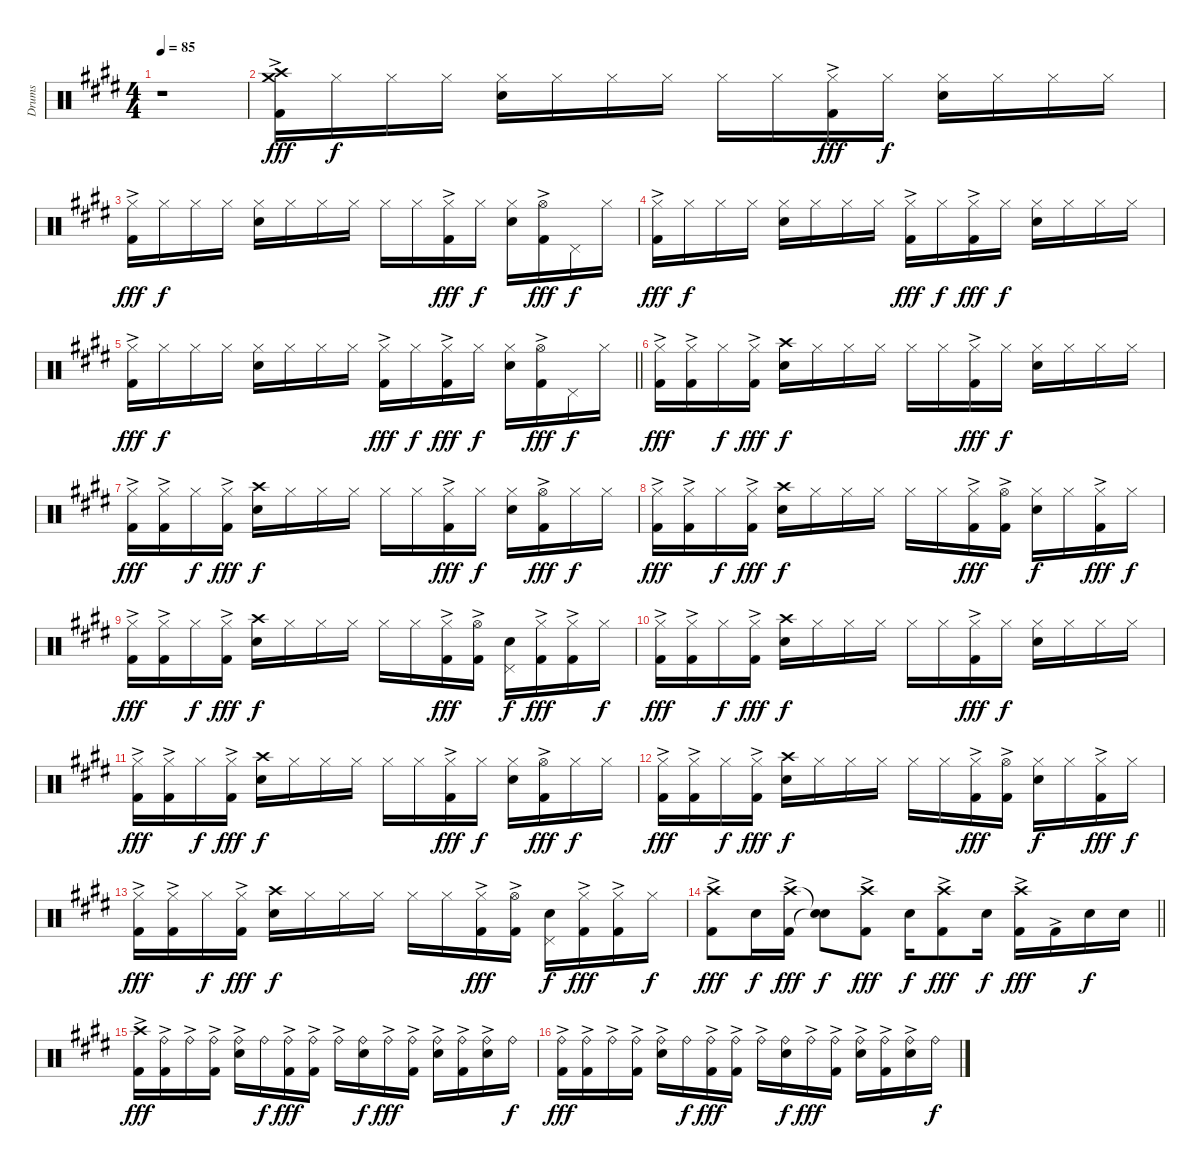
\track ("Drums" "Drums") {instrument percussion}
\staff {score}
\articulation defaults
\ts (4 4)
\tempo 85
\clef neutral
\ks e
r.1{dy fff} |
("Crash high (hit)" "Crash medium (hit)" "Kick (hit) 2"{ac}).16 "Hi-Hat (closed)".16{dy f} "Hi-Hat (closed)".16 "Hi-Hat (closed)".16 ("Hi-Hat (closed)" "Snare (hit) 2").16 "Hi-Hat (closed)".16 "Hi-Hat (closed)".16 "Hi-Hat (closed)".16 "Hi-Hat (closed)".16 "Hi-Hat (closed)".16 ("Hi-Hat (closed)" "Kick (hit) 2"{ac}).16{dy fff} "Hi-Hat (closed)".16{dy f} ("Hi-Hat (closed)" "Snare (hit) 2").16 "Hi-Hat (closed)".16 "Hi-Hat (closed)".16 "Hi-Hat (closed)".16 |
("Hi-Hat (closed)" "Kick (hit) 2"{ac}).16{dy fff} "Hi-Hat (closed)".16{dy f} "Hi-Hat (closed)".16 "Hi-Hat (closed)".16 ("Hi-Hat (closed)" "Snare (hit) 2").16 "Hi-Hat (closed)".16 "Hi-Hat (closed)".16 "Hi-Hat (closed)".16 "Hi-Hat (closed)".16 "Hi-Hat (closed)".16 ("Hi-Hat (closed)" "Kick (hit) 2"{ac}).16{dy fff} "Hi-Hat (closed)".16{dy f} ("Hi-Hat (closed)" "Snare (hit) 2").16 ("Hi-Hat (open)" "Kick (hit) 2"{ac}).16{dy fff} "Pedal Hi-Hat (hit)".16{dy f} "Hi-Hat (closed)".16 |
("Hi-Hat (closed)" "Kick (hit) 2"{ac}).16{dy fff} "Hi-Hat (closed)".16{dy f} "Hi-Hat (closed)".16 "Hi-Hat (closed)".16 ("Hi-Hat (closed)" "Snare (hit) 2").16 "Hi-Hat (closed)".16 "Hi-Hat (closed)".16 "Hi-Hat (closed)".16 ("Hi-Hat (closed)" "Kick (hit) 2"{ac}).16{dy fff} "Hi-Hat (closed)".16{dy f} ("Hi-Hat (closed)" "Kick (hit) 2"{ac}).16{dy fff} "Hi-Hat (closed)".16{dy f} ("Hi-Hat (closed)" "Snare (hit) 2").16 "Hi-Hat (closed)".16 "Hi-Hat (closed)".16 "Hi-Hat (closed)".16 |
\barLineRight lightlight
("Hi-Hat (closed)" "Kick (hit) 2"{ac}).16{dy fff} "Hi-Hat (closed)".16{dy f} "Hi-Hat (closed)".16 "Hi-Hat (closed)".16 ("Hi-Hat (closed)" "Snare (hit) 2").16 "Hi-Hat (closed)".16 "Hi-Hat (closed)".16 "Hi-Hat (closed)".16 ("Hi-Hat (closed)" "Kick (hit) 2"{ac}).16{dy fff} "Hi-Hat (closed)".16{dy f} ("Hi-Hat (closed)" "Kick (hit) 2"{ac}).16{dy fff} "Hi-Hat (closed)".16{dy f} ("Hi-Hat (closed)" "Snare (hit) 2").16 ("Hi-Hat (open)" "Kick (hit) 2"{ac}).16{dy fff} "Pedal Hi-Hat (hit)".16{dy f} "Hi-Hat (closed)".16 |
("Hi-Hat (closed)" "Kick (hit) 2"{ac}).16{dy fff} ("Hi-Hat (closed)" "Kick (hit) 2"{ac}).16 "Hi-Hat (closed)".16{dy f} ("Hi-Hat (closed)" "Kick (hit) 2"{ac}).16{dy fff} ("Crash high (hit)" "Snare (hit) 2").16{dy f} "Hi-Hat (closed)".16 "Hi-Hat (closed)".16 "Hi-Hat (closed)".16 "Hi-Hat (closed)".16 "Hi-Hat (closed)".16 ("Hi-Hat (closed)" "Kick (hit) 2"{ac}).16{dy fff} "Hi-Hat (closed)".16{dy f} ("Hi-Hat (closed)" "Snare (hit) 2").16 "Hi-Hat (closed)".16 "Hi-Hat (closed)".16 "Hi-Hat (closed)".16 |
("Hi-Hat (closed)" "Kick (hit) 2"{ac}).16{dy fff} ("Hi-Hat (closed)" "Kick (hit) 2"{ac}).16 "Hi-Hat (closed)".16{dy f} ("Hi-Hat (closed)" "Kick (hit) 2"{ac}).16{dy fff} ("Crash high (hit)" "Snare (hit) 2").16{dy f} "Hi-Hat (closed)".16 "Hi-Hat (closed)".16 "Hi-Hat (closed)".16 "Hi-Hat (closed)".16 "Hi-Hat (closed)".16 ("Hi-Hat (closed)" "Kick (hit) 2"{ac}).16{dy fff} "Hi-Hat (closed)".16{dy f} ("Hi-Hat (closed)" "Snare (hit) 2").16 ("Hi-Hat (open)" "Kick (hit) 2"{ac}).16{dy fff} "Hi-Hat (closed)".16{dy f} "Hi-Hat (closed)".16 |
("Hi-Hat (closed)" "Kick (hit) 2"{ac}).16{dy fff} ("Hi-Hat (closed)" "Kick (hit) 2"{ac}).16 "Hi-Hat (closed)".16{dy f} ("Hi-Hat (closed)" "Kick (hit) 2"{ac}).16{dy fff} ("Crash high (hit)" "Snare (hit) 2").16{dy f} "Hi-Hat (closed)".16 "Hi-Hat (closed)".16 "Hi-Hat (closed)".16 "Hi-Hat (closed)".16 "Hi-Hat (closed)".16 ("Hi-Hat (closed)" "Kick (hit) 2"{ac}).16{dy fff} ("Hi-Hat (open)" "Kick (hit) 2"{ac}).16 ("Hi-Hat (closed)" "Snare (hit) 2").16{dy f} "Hi-Hat (closed)".16 ("Hi-Hat (closed)" "Kick (hit) 2"{ac}).16{dy fff} "Hi-Hat (closed)".16{dy f} |
("Hi-Hat (closed)" "Kick (hit) 2"{ac}).16{dy fff} ("Hi-Hat (closed)" "Kick (hit) 2"{ac}).16 "Hi-Hat (closed)".16{dy f} ("Hi-Hat (closed)" "Kick (hit) 2"{ac}).16{dy fff} ("Crash high (hit)" "Snare (hit) 2").16{dy f} "Hi-Hat (closed)".16 "Hi-Hat (closed)".16 "Hi-Hat (closed)".16 "Hi-Hat (closed)".16 "Hi-Hat (closed)".16 ("Hi-Hat (closed)" "Kick (hit) 2"{ac}).16{dy fff} ("Hi-Hat (open)" "Kick (hit) 2"{ac}).16 ("Pedal Hi-Hat (hit)" "Snare (hit) 2").16{dy f} ("Hi-Hat (closed)" "Kick (hit) 2"{ac}).16{dy fff} ("Hi-Hat (closed)" "Kick (hit) 2"{ac}).16 "Hi-Hat (closed)".16{dy f} |
("Hi-Hat (closed)" "Kick (hit) 2"{ac}).16{dy fff} ("Hi-Hat (closed)" "Kick (hit) 2"{ac}).16 "Hi-Hat (closed)".16{dy f} ("Hi-Hat (closed)" "Kick (hit) 2"{ac}).16{dy fff} ("Crash high (hit)" "Snare (hit) 2").16{dy f} "Hi-Hat (closed)".16 "Hi-Hat (closed)".16 "Hi-Hat (closed)".16 "Hi-Hat (closed)".16 "Hi-Hat (closed)".16 ("Hi-Hat (closed)" "Kick (hit) 2"{ac}).16{dy fff} "Hi-Hat (closed)".16{dy f} ("Hi-Hat (closed)" "Snare (hit) 2").16 "Hi-Hat (closed)".16 "Hi-Hat (closed)".16 "Hi-Hat (closed)".16 |
("Hi-Hat (closed)" "Kick (hit) 2"{ac}).16{dy fff} ("Hi-Hat (closed)" "Kick (hit) 2"{ac}).16 "Hi-Hat (closed)".16{dy f} ("Hi-Hat (closed)" "Kick (hit) 2"{ac}).16{dy fff} ("Crash high (hit)" "Snare (hit) 2").16{dy f} "Hi-Hat (closed)".16 "Hi-Hat (closed)".16 "Hi-Hat (closed)".16 "Hi-Hat (closed)".16 "Hi-Hat (closed)".16 ("Hi-Hat (closed)" "Kick (hit) 2"{ac}).16{dy fff} "Hi-Hat (closed)".16{dy f} ("Hi-Hat (closed)" "Snare (hit) 2").16 ("Hi-Hat (open)" "Kick (hit) 2"{ac}).16{dy fff} "Hi-Hat (closed)".16{dy f} "Hi-Hat (closed)".16 |
("Hi-Hat (closed)" "Kick (hit) 2"{ac}).16{dy fff} ("Hi-Hat (closed)" "Kick (hit) 2"{ac}).16 "Hi-Hat (closed)".16{dy f} ("Hi-Hat (closed)" "Kick (hit) 2"{ac}).16{dy fff} ("Crash high (hit)" "Snare (hit) 2").16{dy f} "Hi-Hat (closed)".16 "Hi-Hat (closed)".16 "Hi-Hat (closed)".16 "Hi-Hat (closed)".16 "Hi-Hat (closed)".16 ("Hi-Hat (closed)" "Kick (hit) 2"{ac}).16{dy fff} ("Hi-Hat (open)" "Kick (hit) 2"{ac}).16 ("Hi-Hat (closed)" "Snare (hit) 2").16{dy f} "Hi-Hat (closed)".16 ("Hi-Hat (closed)" "Kick (hit) 2"{ac}).16{dy fff} "Hi-Hat (closed)".16{dy f} |
("Hi-Hat (closed)" "Kick (hit) 2"{ac}).16{dy fff} ("Hi-Hat (closed)" "Kick (hit) 2"{ac}).16 "Hi-Hat (closed)".16{dy f} ("Hi-Hat (closed)" "Kick (hit) 2"{ac}).16{dy fff} ("Crash high (hit)" "Snare (hit) 2").16{dy f} "Hi-Hat (closed)".16 "Hi-Hat (closed)".16 "Hi-Hat (closed)".16 "Hi-Hat (closed)".16 "Hi-Hat (closed)".16 ("Hi-Hat (closed)" "Kick (hit) 2"{ac}).16{dy fff} ("Hi-Hat (open)" "Kick (hit) 2"{ac}).16 ("Pedal Hi-Hat (hit)" "Snare (hit) 2").16{dy f} ("Hi-Hat (closed)" "Kick (hit) 2"{ac}).16{dy fff} ("Hi-Hat (closed)" "Kick (hit) 2"{ac}).16 "Hi-Hat (closed)".16{dy f} |
\barLineRight lightlight
("Crash high (hit)" "Kick (hit) 2"{ac}).8{dy fff} "Snare (hit) 2".16{dy f} ("Crash high (hit)" "Kick (hit) 2"{ac}).16{dy fff} ("Snare (hit)"{t} "Snare (hit)"{t}).8{dy f} ("Crash high (hit)" "Kick (hit) 2"{ac}).8{dy fff} "Snare (hit) 2".16{dy f} ("Crash high (hit)" "Kick (hit) 2"{ac}).8{dy fff} "Snare (hit) 2".16{dy f} ("Crash high (hit)" "Kick (hit) 2"{ac}).16{dy fff} "Kick (hit) 2"{ac}.16 "Snare (hit) 2".16{dy f} "Snare (hit) 2".16 |
("Crash high (hit)" "Kick (hit) 2"{ac}).16{dy fff} ("Ride (bell)" "Kick (hit) 2"{ac}).16 "Ride (bell)"{ac}.16 ("Ride (bell)" "Kick (hit) 2"{ac}).16 ("Ride (bell)"{ac} "Snare (hit) 2").16 "Ride (bell)".16{dy f} ("Ride (bell)"{ac} "Kick (hit) 2"{ac}).16{dy fff} ("Ride (bell)" "Kick (hit) 2"{ac}).16 "Ride (bell)"{ac}.16 ("Ride (bell)" "Snare (hit) 2").16{dy f} "Ride (bell)"{ac}.16{dy fff} ("Ride (bell)" "Kick (hit) 2"{ac}).16 ("Ride (bell)"{ac} "Snare (hit) 2").16 ("Ride (bell)" "Kick (hit) 2"{ac}).16 ("Ride (bell)"{ac} "Snare (hit) 2").16 "Ride (bell)".16{dy f} |
("Ride (bell)"{ac} "Kick (hit) 2"{ac}).16{dy fff} ("Ride (bell)" "Kick (hit) 2"{ac}).16 "Ride (bell)"{ac}.16 ("Ride (bell)" "Kick (hit) 2"{ac}).16 ("Ride (bell)"{ac} "Snare (hit) 2").16 "Ride (bell)".16{dy f} ("Ride (bell)"{ac} "Kick (hit) 2"{ac}).16{dy fff} ("Ride (bell)" "Kick (hit) 2"{ac}).16 "Ride (bell)"{ac}.16 ("Ride (bell)" "Snare (hit) 2").16{dy f} "Ride (bell)"{ac}.16{dy fff} ("Ride (bell)" "Kick (hit) 2"{ac}).16 ("Ride (bell)"{ac} "Snare (hit) 2").16 ("Ride (bell)" "Kick (hit) 2"{ac}).16 ("Ride (bell)"{ac} "Snare (hit) 2").16 "Ride (bell)".16{dy f}
